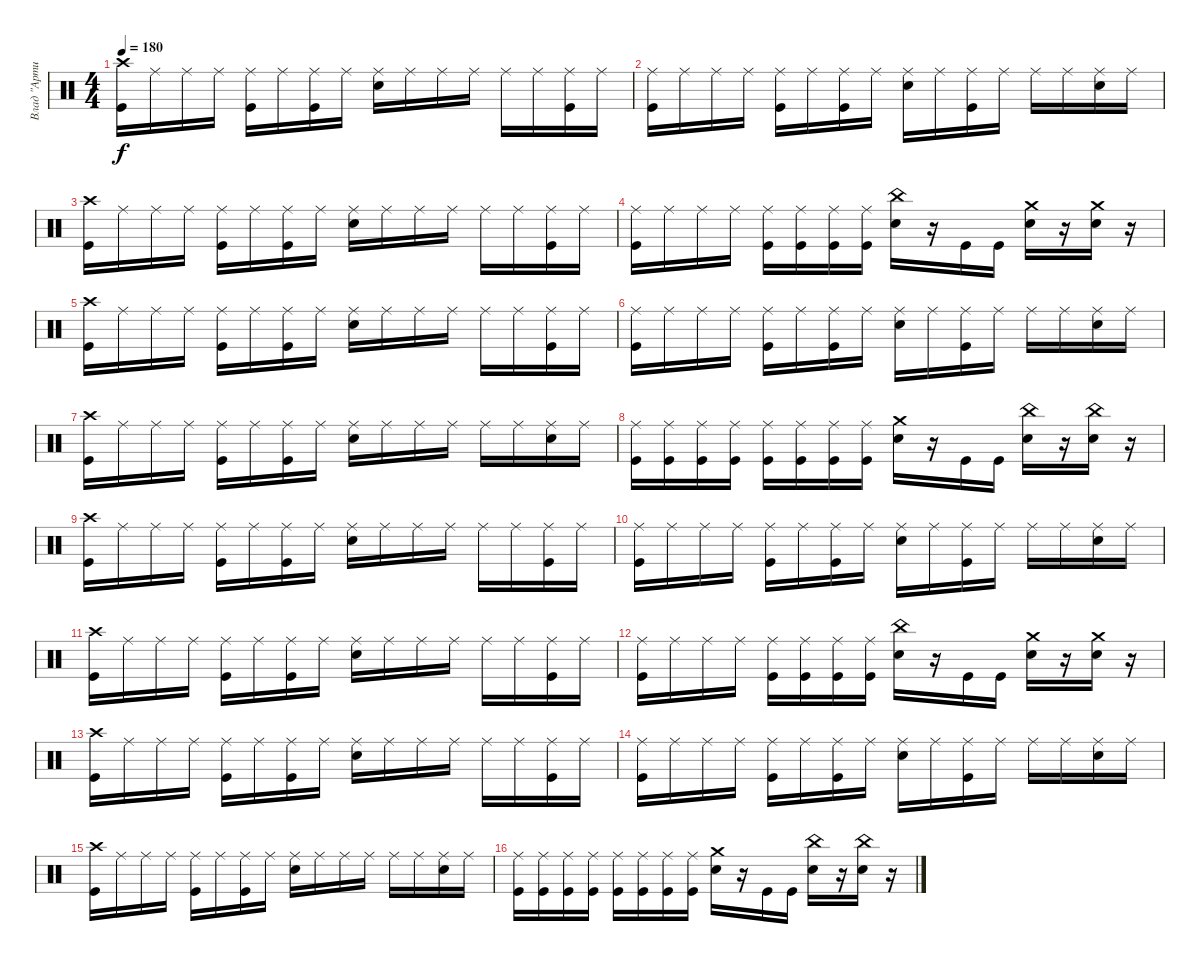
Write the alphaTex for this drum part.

\track ("Влад \"Артист\"" "Влад \"Арти") {instrument percussion}
\staff {score}
\articulation defaults
\ts (4 4)
\tempo 180
\clef neutral
\ks c
("Crash high (hit)" "Kick (hit)").16{dy f} "Ride (middle)".16 "Ride (middle)".16 "Ride (middle)".16 ("Kick (hit)" "Ride (middle)").16 "Ride (middle)".16 ("Ride (middle)" "Kick (hit)").16 "Ride (middle)".16 ("Snare (hit) 2" "Ride (middle)").16 "Ride (middle)".16 "Ride (middle)".16 "Ride (middle)".16 "Ride (middle)".16 "Ride (middle)".16 ("Ride (middle)" "Kick (hit)").16 "Ride (middle)".16 |
("Ride (middle)" "Kick (hit)").16 "Ride (middle)".16 "Ride (middle)".16 "Ride (middle)".16 ("Ride (middle)" "Kick (hit)").16 "Ride (middle)".16 ("Ride (middle)" "Kick (hit)").16 "Ride (middle)".16 ("Ride (middle)" "Snare (hit) 2").16 "Ride (middle)".16 ("Ride (middle)" "Kick (hit)").16 "Ride (middle)".16 "Ride (middle)".16 "Ride (middle)".16 ("Ride (middle)" "Snare (hit) 2").16 "Ride (middle)".16 |
("Crash high (hit)" "Kick (hit)").16 "Ride (middle)".16 "Ride (middle)".16 "Ride (middle)".16 ("Kick (hit)" "Ride (middle)").16 "Ride (middle)".16 ("Ride (middle)" "Kick (hit)").16 "Ride (middle)".16 ("Snare (hit) 2" "Ride (middle)").16 "Ride (middle)".16 "Ride (middle)".16 "Ride (middle)".16 "Ride (middle)".16 "Ride (middle)".16 ("Ride (middle)" "Kick (hit)").16 "Ride (middle)".16 |
("Ride (middle)" "Kick (hit)").16 "Ride (middle)".16 "Ride (middle)".16 "Ride (middle)".16 ("Ride (middle)" "Kick (hit)").16 ("Kick (hit)" "Ride (middle)").16 ("Ride (middle)" "Kick (hit)").16 ("Kick (hit)" "Ride (middle)").16 ("China (hit)" "Snare (hit) 2").16 r.16 "Kick (hit)".16 "Kick (hit)".16 ("Snare (hit) 2" "Crash medium (hit)").16 r.16 ("Crash medium (hit)" "Snare (hit) 2").16 r.16 |
("Crash high (hit)" "Kick (hit)").16 "Ride (middle)".16 "Ride (middle)".16 "Ride (middle)".16 ("Kick (hit)" "Ride (middle)").16 "Ride (middle)".16 ("Ride (middle)" "Kick (hit)").16 "Ride (middle)".16 ("Snare (hit) 2" "Ride (middle)").16 "Ride (middle)".16 "Ride (middle)".16 "Ride (middle)".16 "Ride (middle)".16 "Ride (middle)".16 ("Ride (middle)" "Kick (hit)").16 "Ride (middle)".16 |
("Ride (middle)" "Kick (hit)").16 "Ride (middle)".16 "Ride (middle)".16 "Ride (middle)".16 ("Ride (middle)" "Kick (hit)").16 "Ride (middle)".16 ("Ride (middle)" "Kick (hit)").16 "Ride (middle)".16 ("Ride (middle)" "Snare (hit) 2").16 "Ride (middle)".16 ("Ride (middle)" "Kick (hit)").16 "Ride (middle)".16 "Ride (middle)".16 "Ride (middle)".16 ("Ride (middle)" "Snare (hit) 2").16 "Ride (middle)".16 |
("Crash high (hit)" "Kick (hit)").16 "Ride (middle)".16 "Ride (middle)".16 "Ride (middle)".16 ("Kick (hit)" "Ride (middle)").16 "Ride (middle)".16 ("Ride (middle)" "Kick (hit)").16 "Ride (middle)".16 ("Snare (hit) 2" "Ride (middle)").16 "Ride (middle)".16 "Ride (middle)".16 "Ride (middle)".16 "Ride (middle)".16 "Ride (middle)".16 ("Ride (middle)" "Snare (hit) 2").16 "Ride (middle)".16 |
("Ride (middle)" "Kick (hit)").16 ("Kick (hit)" "Ride (middle)").16 ("Kick (hit)" "Ride (middle)").16 ("Kick (hit)" "Ride (middle)").16 ("Ride (middle)" "Kick (hit)").16 ("Kick (hit)" "Ride (middle)").16 ("Ride (middle)" "Kick (hit)").16 ("Kick (hit)" "Ride (middle)").16 ("Crash medium (hit)" "Snare (hit) 2").16 r.16 "Kick (hit)".16 "Kick (hit)".16 ("Snare (hit) 2" "China (hit)").16 r.16 ("China (hit)" "Snare (hit) 2").16 r.16 |
("Crash high (hit)" "Kick (hit)").16 "Ride (middle)".16 "Ride (middle)".16 "Ride (middle)".16 ("Kick (hit)" "Ride (middle)").16 "Ride (middle)".16 ("Ride (middle)" "Kick (hit)").16 "Ride (middle)".16 ("Snare (hit) 2" "Ride (middle)").16 "Ride (middle)".16 "Ride (middle)".16 "Ride (middle)".16 "Ride (middle)".16 "Ride (middle)".16 ("Ride (middle)" "Kick (hit)").16 "Ride (middle)".16 |
("Ride (middle)" "Kick (hit)").16 "Ride (middle)".16 "Ride (middle)".16 "Ride (middle)".16 ("Ride (middle)" "Kick (hit)").16 "Ride (middle)".16 ("Ride (middle)" "Kick (hit)").16 "Ride (middle)".16 ("Ride (middle)" "Snare (hit) 2").16 "Ride (middle)".16 ("Ride (middle)" "Kick (hit)").16 "Ride (middle)".16 "Ride (middle)".16 "Ride (middle)".16 ("Ride (middle)" "Snare (hit) 2").16 "Ride (middle)".16 |
("Crash high (hit)" "Kick (hit)").16 "Ride (middle)".16 "Ride (middle)".16 "Ride (middle)".16 ("Kick (hit)" "Ride (middle)").16 "Ride (middle)".16 ("Ride (middle)" "Kick (hit)").16 "Ride (middle)".16 ("Snare (hit) 2" "Ride (middle)").16 "Ride (middle)".16 "Ride (middle)".16 "Ride (middle)".16 "Ride (middle)".16 "Ride (middle)".16 ("Ride (middle)" "Kick (hit)").16 "Ride (middle)".16 |
("Ride (middle)" "Kick (hit)").16 "Ride (middle)".16 "Ride (middle)".16 "Ride (middle)".16 ("Ride (middle)" "Kick (hit)").16 ("Kick (hit)" "Ride (middle)").16 ("Ride (middle)" "Kick (hit)").16 ("Kick (hit)" "Ride (middle)").16 ("China (hit)" "Snare (hit) 2").16 r.16 "Kick (hit)".16 "Kick (hit)".16 ("Snare (hit) 2" "Crash medium (hit)").16 r.16 ("Crash medium (hit)" "Snare (hit) 2").16 r.16 |
("Crash high (hit)" "Kick (hit)").16 "Ride (middle)".16 "Ride (middle)".16 "Ride (middle)".16 ("Kick (hit)" "Ride (middle)").16 "Ride (middle)".16 ("Ride (middle)" "Kick (hit)").16 "Ride (middle)".16 ("Snare (hit) 2" "Ride (middle)").16 "Ride (middle)".16 "Ride (middle)".16 "Ride (middle)".16 "Ride (middle)".16 "Ride (middle)".16 ("Ride (middle)" "Kick (hit)").16 "Ride (middle)".16 |
("Ride (middle)" "Kick (hit)").16 "Ride (middle)".16 "Ride (middle)".16 "Ride (middle)".16 ("Ride (middle)" "Kick (hit)").16 "Ride (middle)".16 ("Ride (middle)" "Kick (hit)").16 "Ride (middle)".16 ("Ride (middle)" "Snare (hit) 2").16 "Ride (middle)".16 ("Ride (middle)" "Kick (hit)").16 "Ride (middle)".16 "Ride (middle)".16 "Ride (middle)".16 ("Ride (middle)" "Snare (hit) 2").16 "Ride (middle)".16 |
("Crash high (hit)" "Kick (hit)").16 "Ride (middle)".16 "Ride (middle)".16 "Ride (middle)".16 ("Kick (hit)" "Ride (middle)").16 "Ride (middle)".16 ("Ride (middle)" "Kick (hit)").16 "Ride (middle)".16 ("Snare (hit) 2" "Ride (middle)").16 "Ride (middle)".16 "Ride (middle)".16 "Ride (middle)".16 "Ride (middle)".16 "Ride (middle)".16 ("Ride (middle)" "Snare (hit) 2").16 "Ride (middle)".16 |
("Ride (middle)" "Kick (hit)").16 ("Kick (hit)" "Ride (middle)").16 ("Kick (hit)" "Ride (middle)").16 ("Kick (hit)" "Ride (middle)").16 ("Ride (middle)" "Kick (hit)").16 ("Kick (hit)" "Ride (middle)").16 ("Ride (middle)" "Kick (hit)").16 ("Kick (hit)" "Ride (middle)").16 ("Crash medium (hit)" "Snare (hit) 2").16 r.16 "Kick (hit)".16 "Kick (hit)".16 ("Snare (hit) 2" "China (hit)").16 r.16 ("China (hit)" "Snare (hit) 2").16 r.16
